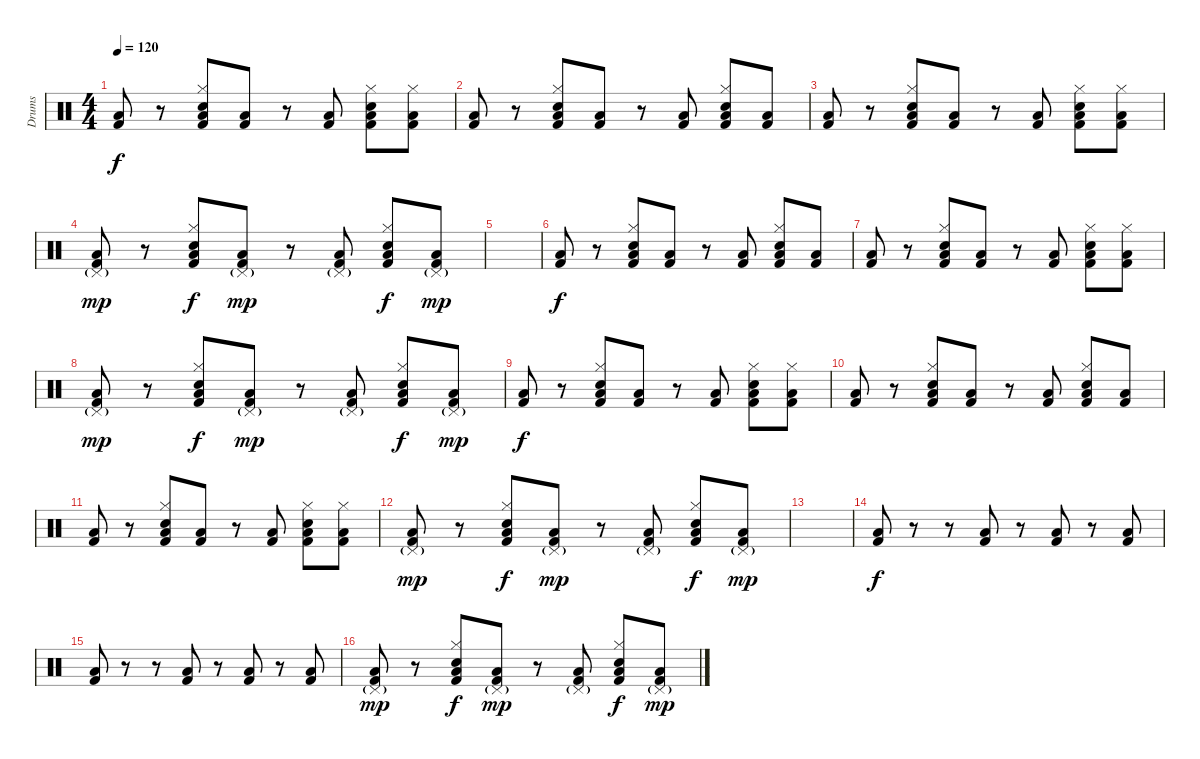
\track ("Drums" "Drums") {instrument percussion}
\staff {score}
\articulation defaults
\ts (4 4)
\tempo 120
\clef neutral
\ks c
("Kick (hit) 2" "Low Floor Tom (hit)").8{dy f} r.8 ("Hi-Hat (closed)" "Electric Snare (hit)" "Kick (hit) 2" "Low Floor Tom (hit)").8 ("Kick (hit) 2" "Low Floor Tom (hit)").8 r.8 ("Kick (hit) 2" "Low Floor Tom (hit)").8 ("Hi-Hat (closed)" "Electric Snare (hit)" "Kick (hit) 2" "Low Floor Tom (hit)").8 ("Hi-Hat (closed)" "Kick (hit) 2" "Low Floor Tom (hit)").8 |
("Kick (hit) 2" "Low Floor Tom (hit)").8 r.8 ("Hi-Hat (closed)" "Electric Snare (hit)" "Kick (hit) 2" "Low Floor Tom (hit)").8 ("Kick (hit) 2" "Low Floor Tom (hit)").8 r.8 ("Kick (hit) 2" "Low Floor Tom (hit)").8 ("Hi-Hat (closed)" "Electric Snare (hit)" "Kick (hit) 2" "Low Floor Tom (hit)").8 ("Kick (hit) 2" "Low Floor Tom (hit)").8 |
("Kick (hit) 2" "Low Floor Tom (hit)").8 r.8 ("Hi-Hat (closed)" "Electric Snare (hit)" "Kick (hit) 2" "Low Floor Tom (hit)").8 ("Kick (hit) 2" "Low Floor Tom (hit)").8 r.8 ("Kick (hit) 2" "Low Floor Tom (hit)").8 ("Hi-Hat (closed)" "Electric Snare (hit)" "Kick (hit) 2" "Low Floor Tom (hit)").8 ("Hi-Hat (closed)" "Kick (hit) 2" "Low Floor Tom (hit)").8 |
("Pedal Hi-Hat (hit)"{g} "Kick (hit) 2" "Low Floor Tom (hit)").8{dy mp} r.8 ("Hi-Hat (closed)" "Electric Snare (hit)" "Kick (hit) 2" "Low Floor Tom (hit)").8{dy f} ("Pedal Hi-Hat (hit)"{g} "Kick (hit) 2" "Low Floor Tom (hit)").8{dy mp} r.8 ("Pedal Hi-Hat (hit)"{g} "Kick (hit) 2" "Low Floor Tom (hit)").8 ("Hi-Hat (closed)" "Electric Snare (hit)" "Kick (hit) 2" "Low Floor Tom (hit)").8{dy f} ("Pedal Hi-Hat (hit)"{g} "Kick (hit) 2" "Low Floor Tom (hit)").8{dy mp} |
|
("Kick (hit) 2" "Low Floor Tom (hit)").8{dy f} r.8 ("Hi-Hat (closed)" "Electric Snare (hit)" "Kick (hit) 2" "Low Floor Tom (hit)").8 ("Kick (hit) 2" "Low Floor Tom (hit)").8 r.8 ("Kick (hit) 2" "Low Floor Tom (hit)").8 ("Hi-Hat (closed)" "Electric Snare (hit)" "Kick (hit) 2" "Low Floor Tom (hit)").8 ("Kick (hit) 2" "Low Floor Tom (hit)").8 |
("Kick (hit) 2" "Low Floor Tom (hit)").8 r.8 ("Hi-Hat (closed)" "Electric Snare (hit)" "Kick (hit) 2" "Low Floor Tom (hit)").8 ("Kick (hit) 2" "Low Floor Tom (hit)").8 r.8 ("Kick (hit) 2" "Low Floor Tom (hit)").8 ("Hi-Hat (closed)" "Electric Snare (hit)" "Kick (hit) 2" "Low Floor Tom (hit)").8 ("Hi-Hat (closed)" "Kick (hit) 2" "Low Floor Tom (hit)").8 |
("Pedal Hi-Hat (hit)"{g} "Kick (hit) 2" "Low Floor Tom (hit)").8{dy mp} r.8 ("Hi-Hat (closed)" "Electric Snare (hit)" "Kick (hit) 2" "Low Floor Tom (hit)").8{dy f} ("Pedal Hi-Hat (hit)"{g} "Kick (hit) 2" "Low Floor Tom (hit)").8{dy mp} r.8 ("Pedal Hi-Hat (hit)"{g} "Kick (hit) 2" "Low Floor Tom (hit)").8 ("Hi-Hat (closed)" "Electric Snare (hit)" "Kick (hit) 2" "Low Floor Tom (hit)").8{dy f} ("Pedal Hi-Hat (hit)"{g} "Kick (hit) 2" "Low Floor Tom (hit)").8{dy mp} |
("Kick (hit) 2" "Low Floor Tom (hit)").8{dy f} r.8 ("Hi-Hat (closed)" "Electric Snare (hit)" "Kick (hit) 2" "Low Floor Tom (hit)").8 ("Kick (hit) 2" "Low Floor Tom (hit)").8 r.8 ("Kick (hit) 2" "Low Floor Tom (hit)").8 ("Hi-Hat (closed)" "Electric Snare (hit)" "Kick (hit) 2" "Low Floor Tom (hit)").8 ("Hi-Hat (closed)" "Kick (hit) 2" "Low Floor Tom (hit)").8 |
("Kick (hit) 2" "Low Floor Tom (hit)").8 r.8 ("Hi-Hat (closed)" "Electric Snare (hit)" "Kick (hit) 2" "Low Floor Tom (hit)").8 ("Kick (hit) 2" "Low Floor Tom (hit)").8 r.8 ("Kick (hit) 2" "Low Floor Tom (hit)").8 ("Hi-Hat (closed)" "Electric Snare (hit)" "Kick (hit) 2" "Low Floor Tom (hit)").8 ("Kick (hit) 2" "Low Floor Tom (hit)").8 |
("Kick (hit) 2" "Low Floor Tom (hit)").8 r.8 ("Hi-Hat (closed)" "Electric Snare (hit)" "Kick (hit) 2" "Low Floor Tom (hit)").8 ("Kick (hit) 2" "Low Floor Tom (hit)").8 r.8 ("Kick (hit) 2" "Low Floor Tom (hit)").8 ("Hi-Hat (closed)" "Electric Snare (hit)" "Kick (hit) 2" "Low Floor Tom (hit)").8 ("Hi-Hat (closed)" "Kick (hit) 2" "Low Floor Tom (hit)").8 |
("Pedal Hi-Hat (hit)"{g} "Kick (hit) 2" "Low Floor Tom (hit)").8{dy mp} r.8 ("Hi-Hat (closed)" "Electric Snare (hit)" "Kick (hit) 2" "Low Floor Tom (hit)").8{dy f} ("Pedal Hi-Hat (hit)"{g} "Kick (hit) 2" "Low Floor Tom (hit)").8{dy mp} r.8 ("Pedal Hi-Hat (hit)"{g} "Kick (hit) 2" "Low Floor Tom (hit)").8 ("Hi-Hat (closed)" "Electric Snare (hit)" "Kick (hit) 2" "Low Floor Tom (hit)").8{dy f} ("Pedal Hi-Hat (hit)"{g} "Kick (hit) 2" "Low Floor Tom (hit)").8{dy mp} |
|
("Kick (hit) 2" "Low Floor Tom (hit)").8{dy f} r.8 r.8 ("Kick (hit) 2" "Low Floor Tom (hit)").8 r.8 ("Kick (hit) 2" "Low Floor Tom (hit)").8 r.8 ("Kick (hit) 2" "Low Floor Tom (hit)").8 |
("Kick (hit) 2" "Low Floor Tom (hit)").8 r.8 r.8 ("Kick (hit) 2" "Low Floor Tom (hit)").8 r.8 ("Kick (hit) 2" "Low Floor Tom (hit)").8 r.8 ("Kick (hit) 2" "Low Floor Tom (hit)").8 |
("Pedal Hi-Hat (hit)"{g} "Kick (hit) 2" "Low Floor Tom (hit)").8{dy mp} r.8 ("Hi-Hat (closed)" "Electric Snare (hit)" "Kick (hit) 2" "Low Floor Tom (hit)").8{dy f} ("Pedal Hi-Hat (hit)"{g} "Kick (hit) 2" "Low Floor Tom (hit)").8{dy mp} r.8 ("Pedal Hi-Hat (hit)"{g} "Kick (hit) 2" "Low Floor Tom (hit)").8 ("Hi-Hat (closed)" "Electric Snare (hit)" "Kick (hit) 2" "Low Floor Tom (hit)").8{dy f} ("Pedal Hi-Hat (hit)"{g} "Kick (hit) 2" "Low Floor Tom (hit)").8{dy mp}
